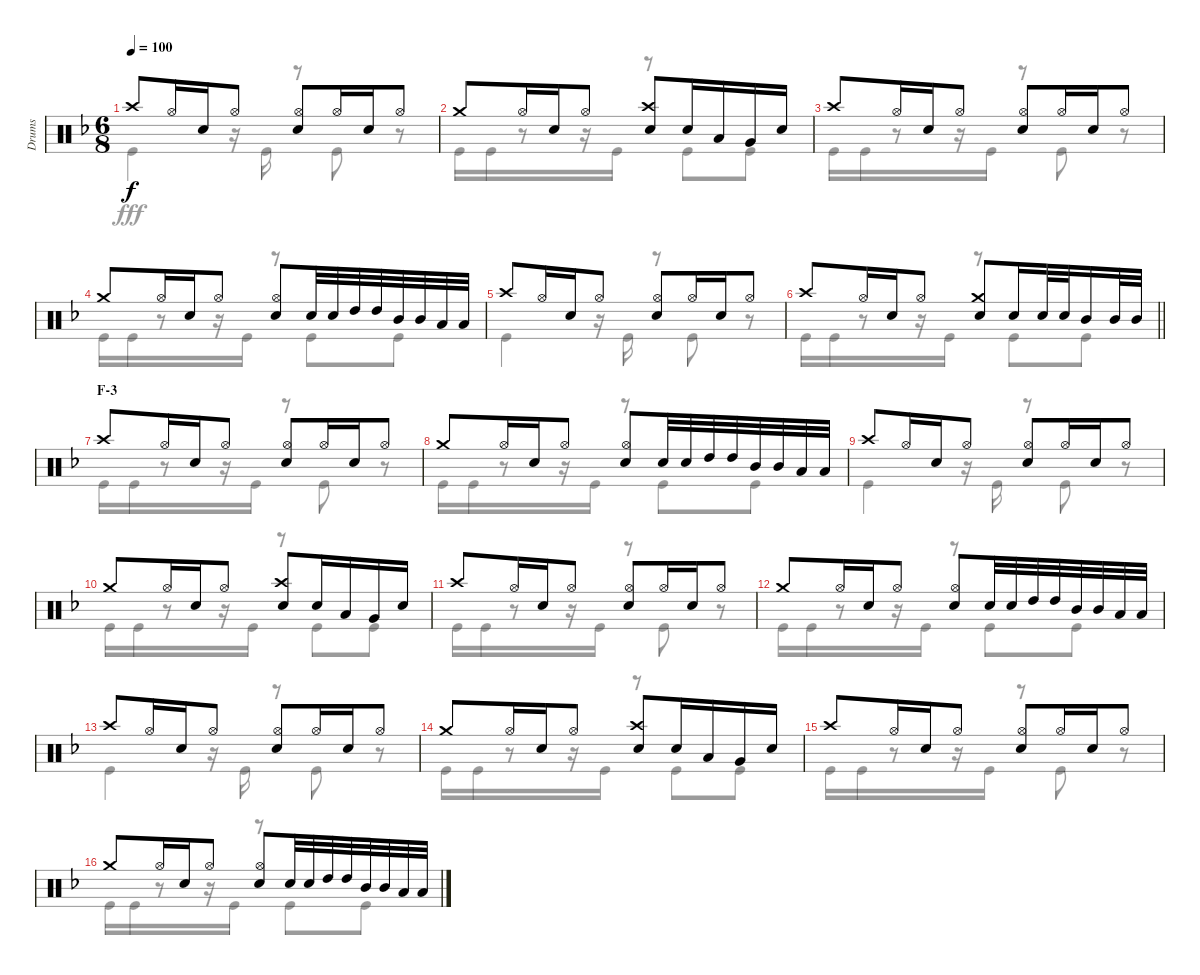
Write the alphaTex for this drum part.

\track ("Drums" "Drums") {instrument percussion}
\staff {score}
\articulation defaults
\voice
\ts (6 8)
\tempo 100
\clef neutral
\ks f "Crash high (hit)".8{dy f} "Hi-Hat (open)".16 "Snare (hit) 2".16 "Hi-Hat (open)".8
("Hi-Hat (open)" "Snare (hit) 2").8 "Hi-Hat (open)".16 "Snare (hit) 2".16 "Hi-Hat (open)".8 |
"Crash medium (hit)".8 "Hi-Hat (open)".16 "Snare (hit) 2".16 "Hi-Hat (open)".8 ("Crash high (hit)" "Snare (hit) 2").8 "Snare (hit) 2".16 "Low Tom (hit)".16 "Very Low Tom (hit)".16 "Snare (hit) 2".16 |
"Crash high (hit)".8 "Hi-Hat (open)".16 "Snare (hit) 2".16 "Hi-Hat (open)".8 ("Hi-Hat (open)" "Snare (hit) 2").8 "Hi-Hat (open)".16 "Snare (hit) 2".16 "Hi-Hat (open)".8 |
"Crash medium (hit)".8 "Hi-Hat (open)".16 "Snare (hit) 2".16 "Hi-Hat (open)".8 ("Hi-Hat (open)" "Snare (hit) 2").8 "Snare (hit) 2".32 "Snare (hit) 2".32 "High Tom (hit)".32 "High Tom (hit)".32 "Mid Tom (hit)".32 "Mid Tom (hit)".32 "Low Tom (hit)".32 "Low Tom (hit)".32 |
"Crash high (hit)".8 "Hi-Hat (open)".16 "Snare (hit) 2".16 "Hi-Hat (open)".8 ("Hi-Hat (open)" "Snare (hit) 2").8 "Hi-Hat (open)".16 "Snare (hit) 2".16 "Hi-Hat (open)".8 |
\barLineRight lightlight "Crash high (hit)".8 "Hi-Hat (open)".16 "Snare (hit) 2".16 "Hi-Hat (open)".8
("Crash medium (hit)" "Snare (hit) 2").8 "Snare (hit) 2".16 "Snare (hit) 2".32 "Snare (hit) 2".32 "Mid Tom (hit)".16 "Mid Tom (hit)".32 "Mid Tom (hit)".32 |
\section ("" "F-3")
"Crash high (hit)".8 "Hi-Hat (open)".16 "Snare (hit) 2".16 "Hi-Hat (open)".8 ("Hi-Hat (open)" "Snare (hit) 2").8 "Hi-Hat (open)".16 "Snare (hit) 2".16 "Hi-Hat (open)".8 |
"Crash medium (hit)".8 "Hi-Hat (open)".16 "Snare (hit) 2".16 "Hi-Hat (open)".8 ("Hi-Hat (open)" "Snare (hit) 2").8 "Snare (hit) 2".32 "Snare (hit) 2".32 "High Tom (hit)".32 "High Tom (hit)".32 "Mid Tom (hit)".32 "Mid Tom (hit)".32 "Low Tom (hit)".32 "Low Tom (hit)".32 |
"Crash high (hit)".8 "Hi-Hat (open)".16 "Snare (hit) 2".16 "Hi-Hat (open)".8 ("Hi-Hat (open)" "Snare (hit) 2").8 "Hi-Hat (open)".16 "Snare (hit) 2".16 "Hi-Hat (open)".8 |
"Crash medium (hit)".8 "Hi-Hat (open)".16 "Snare (hit) 2".16 "Hi-Hat (open)".8 ("Crash high (hit)" "Snare (hit) 2").8 "Snare (hit) 2".16 "Low Tom (hit)".16 "Very Low Tom (hit)".16 "Snare (hit) 2".16 |
"Crash high (hit)".8 "Hi-Hat (open)".16 "Snare (hit) 2".16 "Hi-Hat (open)".8 ("Hi-Hat (open)" "Snare (hit) 2").8 "Hi-Hat (open)".16 "Snare (hit) 2".16 "Hi-Hat (open)".8 |
"Crash medium (hit)".8 "Hi-Hat (open)".16 "Snare (hit) 2".16 "Hi-Hat (open)".8 ("Hi-Hat (open)" "Snare (hit) 2").8 "Snare (hit) 2".32 "Snare (hit) 2".32 "High Tom (hit)".32 "High Tom (hit)".32 "Mid Tom (hit)".32 "Mid Tom (hit)".32 "Low Tom (hit)".32 "Low Tom (hit)".32 |
"Crash high (hit)".8 "Hi-Hat (open)".16 "Snare (hit) 2".16 "Hi-Hat (open)".8 ("Hi-Hat (open)" "Snare (hit) 2").8 "Hi-Hat (open)".16 "Snare (hit) 2".16 "Hi-Hat (open)".8 |
"Crash medium (hit)".8 "Hi-Hat (open)".16 "Snare (hit) 2".16 "Hi-Hat (open)".8 ("Crash high (hit)" "Snare (hit) 2").8 "Snare (hit) 2".16 "Low Tom (hit)".16 "Very Low Tom (hit)".16 "Snare (hit) 2".16 |
"Crash high (hit)".8 "Hi-Hat (open)".16 "Snare (hit) 2".16 "Hi-Hat (open)".8 ("Hi-Hat (open)" "Snare (hit) 2").8 "Hi-Hat (open)".16 "Snare (hit) 2".16 "Hi-Hat (open)".8 |
"Crash medium (hit)".8 "Hi-Hat (open)".16 "Snare (hit) 2".16 "Hi-Hat (open)".8 ("Hi-Hat (open)" "Snare (hit) 2").8 "Snare (hit) 2".32 "Snare (hit) 2".32 "High Tom (hit)".32 "High Tom (hit)".32 "Mid Tom (hit)".32 "Mid Tom (hit)".32 "Low Tom (hit)".32 "Low Tom (hit)".32
\voice
\clef neutral
\ottava regular
\simile none
\ks f "Kick (hit)".4{dy fff}
r.16 "Kick (hit)".16 r.8 "Kick (hit)".8 r.8 |
"Kick (hit)".16 "Kick (hit)".16 r.8 r.16 "Kick (hit)".16 r.8 "Kick (hit)".8 "Kick (hit)".8 |
"Kick (hit)".16 "Kick (hit)".16 r.8 r.16 "Kick (hit)".16 r.8 "Kick (hit)".8 r.8 |
"Kick (hit)".16 "Kick (hit)".16 r.8 r.16 "Kick (hit)".16 r.8 "Kick (hit)".8 "Kick (hit)".8 |
"Kick (hit)".4 r.16 "Kick (hit)".16 r.8 "Kick (hit)".8 r.8 |
\barLineRight lightlight "Kick (hit)".16 "Kick (hit)".16
r.8 r.16 "Kick (hit)".16 r.8 "Kick (hit)".8 "Kick (hit)".8 |
"Kick (hit)".16 "Kick (hit)".16 r.8 r.16 "Kick (hit)".16 r.8 "Kick (hit)".8 r.8 |
"Kick (hit)".16 "Kick (hit)".16 r.8 r.16 "Kick (hit)".16 r.8 "Kick (hit)".8 "Kick (hit)".8 |
"Kick (hit)".4 r.16 "Kick (hit)".16 r.8 "Kick (hit)".8 r.8 |
"Kick (hit)".16 "Kick (hit)".16 r.8 r.16 "Kick (hit)".16 r.8 "Kick (hit)".8 "Kick (hit)".8 |
"Kick (hit)".16 "Kick (hit)".16 r.8 r.16 "Kick (hit)".16 r.8 "Kick (hit)".8 r.8 |
"Kick (hit)".16 "Kick (hit)".16 r.8 r.16 "Kick (hit)".16 r.8 "Kick (hit)".8 "Kick (hit)".8 |
"Kick (hit)".4 r.16 "Kick (hit)".16 r.8 "Kick (hit)".8 r.8 |
"Kick (hit)".16 "Kick (hit)".16 r.8 r.16 "Kick (hit)".16 r.8 "Kick (hit)".8 "Kick (hit)".8 |
"Kick (hit)".16 "Kick (hit)".16 r.8 r.16 "Kick (hit)".16 r.8 "Kick (hit)".8 r.8 |
"Kick (hit)".16 "Kick (hit)".16 r.8 r.16 "Kick (hit)".16 r.8 "Kick (hit)".8 "Kick (hit)".8
